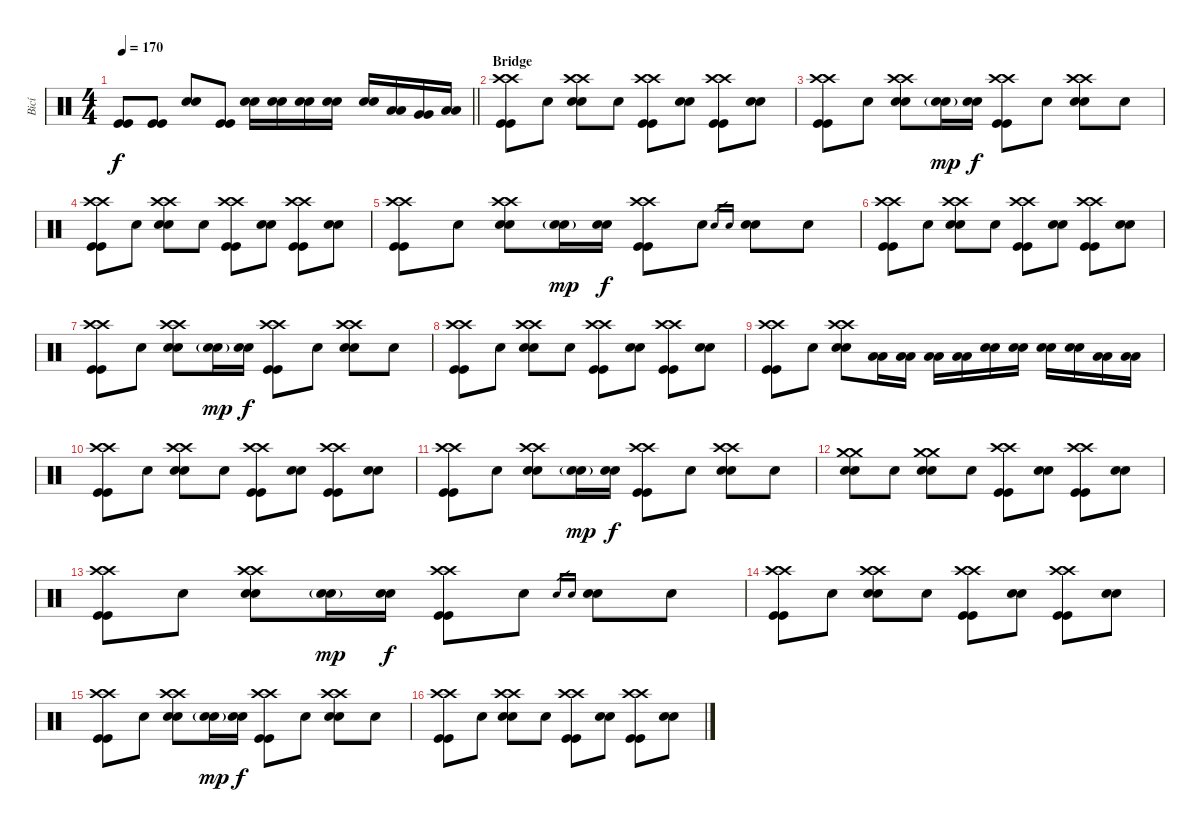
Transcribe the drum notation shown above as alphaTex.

\track ("Bicí" "Bicí") {instrument percussion}
\staff {score}
\articulation defaults
\ts (4 4)
\tempo 170
\clef neutral
\barLineRight lightlight
\ks c
("Kick (hit)" "Kick (hit)").8{dy f} ("Kick (hit)" "Kick (hit)").8 ("Electric Snare (hit)" "Electric Snare (hit)").8 ("Kick (hit)" "Kick (hit)").8 ("Electric Snare (hit)" "Electric Snare (hit)").16 ("Electric Snare (hit)" "Electric Snare (hit)").16 ("Electric Snare (hit)" "Electric Snare (hit)").16 ("Electric Snare (hit)" "Electric Snare (hit)").16 ("Electric Snare (hit)" "Electric Snare (hit)").16 ("Low Tom (hit)" "Low Tom (hit)").16 ("Very Low Tom (hit)" "Very Low Tom (hit)").16 ("Low Floor Tom (hit)" "Low Floor Tom (hit)").16 |
\section ("" "Bridge")
("Crash high (hit)" "Crash high (hit)" "Kick (hit)" "Kick (hit)").8 "Snare (hit)".8 ("Crash high (hit)" "Crash high (hit)" "Electric Snare (hit)" "Electric Snare (hit)").8 "Snare (hit)".8 ("Crash high (hit)" "Crash high (hit)" "Kick (hit)" "Kick (hit)").8 ("Electric Snare (hit)" "Electric Snare (hit)").8 ("Crash high (hit)" "Crash high (hit)" "Kick (hit)" "Kick (hit)").8 ("Electric Snare (hit)" "Electric Snare (hit)").8 |
("Crash high (hit)" "Crash high (hit)" "Kick (hit)" "Kick (hit)").8 "Snare (hit)".8 ("Crash high (hit)" "Crash high (hit)" "Electric Snare (hit)" "Electric Snare (hit)").8 ("Electric Snare (hit)"{g} "Electric Snare (hit)"{g}).16{dy mp} ("Electric Snare (hit)" "Electric Snare (hit)").16{dy f} ("Crash high (hit)" "Crash high (hit)" "Kick (hit)" "Kick (hit)").8 "Snare (hit)".8 ("Crash high (hit)" "Crash high (hit)" "Electric Snare (hit)" "Electric Snare (hit)").8 "Snare (hit)".8 |
("Crash high (hit)" "Crash high (hit)" "Kick (hit)" "Kick (hit)").8 "Snare (hit)".8 ("Crash high (hit)" "Crash high (hit)" "Electric Snare (hit)" "Electric Snare (hit)").8 "Snare (hit)".8 ("Crash high (hit)" "Crash high (hit)" "Kick (hit)" "Kick (hit)").8 ("Electric Snare (hit)" "Electric Snare (hit)").8 ("Crash high (hit)" "Crash high (hit)" "Kick (hit)" "Kick (hit)").8 ("Electric Snare (hit)" "Electric Snare (hit)").8 |
("Crash high (hit)" "Crash high (hit)" "Kick (hit)" "Kick (hit)").8 "Snare (hit)".8 ("Crash high (hit)" "Crash high (hit)" "Electric Snare (hit)" "Electric Snare (hit)").8 ("Electric Snare (hit)"{g} "Electric Snare (hit)"{g}).16{dy mp} ("Electric Snare (hit)" "Electric Snare (hit)").16{dy f} ("Crash high (hit)" "Crash high (hit)" "Kick (hit)" "Kick (hit)").8 "Snare (hit)".8 "Electric Snare (hit)".16{gr} "Electric Snare (hit)".16{gr} ("Electric Snare (hit)" "Electric Snare (hit)").8 "Snare (hit)".8 |
("Crash high (hit)" "Crash high (hit)" "Kick (hit)" "Kick (hit)").8 "Snare (hit)".8 ("Crash high (hit)" "Crash high (hit)" "Electric Snare (hit)" "Electric Snare (hit)").8 "Snare (hit)".8 ("Crash high (hit)" "Crash high (hit)" "Kick (hit)" "Kick (hit)").8 ("Electric Snare (hit)" "Electric Snare (hit)").8 ("Crash high (hit)" "Crash high (hit)" "Kick (hit)" "Kick (hit)").8 ("Electric Snare (hit)" "Electric Snare (hit)").8 |
("Crash high (hit)" "Crash high (hit)" "Kick (hit)" "Kick (hit)").8 "Snare (hit)".8 ("Crash high (hit)" "Crash high (hit)" "Electric Snare (hit)" "Electric Snare (hit)").8 ("Electric Snare (hit)"{g} "Electric Snare (hit)"{g}).16{dy mp} ("Electric Snare (hit)" "Electric Snare (hit)").16{dy f} ("Crash high (hit)" "Crash high (hit)" "Kick (hit)" "Kick (hit)").8 "Snare (hit)".8 ("Crash high (hit)" "Crash high (hit)" "Electric Snare (hit)" "Electric Snare (hit)").8 "Snare (hit)".8 |
("Crash high (hit)" "Crash high (hit)" "Kick (hit)" "Kick (hit)").8 "Snare (hit)".8 ("Crash high (hit)" "Crash high (hit)" "Electric Snare (hit)" "Electric Snare (hit)").8 "Snare (hit)".8 ("Crash high (hit)" "Crash high (hit)" "Kick (hit)" "Kick (hit)").8 ("Electric Snare (hit)" "Electric Snare (hit)").8 ("Crash high (hit)" "Crash high (hit)" "Kick (hit)" "Kick (hit)").8 ("Electric Snare (hit)" "Electric Snare (hit)").8 |
("Crash high (hit)" "Crash high (hit)" "Kick (hit)" "Kick (hit)").8 "Snare (hit)".8 ("Crash high (hit)" "Crash high (hit)" "Electric Snare (hit)" "Electric Snare (hit)").8 ("Low Tom (hit)" "Low Tom (hit)").16 ("Low Tom (hit)" "Low Tom (hit)").16 ("Low Tom (hit)" "Low Tom (hit)").16 ("Low Tom (hit)" "Low Tom (hit)").16 ("Electric Snare (hit)" "Electric Snare (hit)").16 ("Electric Snare (hit)" "Electric Snare (hit)").16 ("Electric Snare (hit)" "Electric Snare (hit)").16 ("Electric Snare (hit)" "Electric Snare (hit)").16 ("Low Tom (hit)" "Low Tom (hit)").16 ("Low Tom (hit)" "Low Tom (hit)").16 |
("Crash high (hit)" "Crash high (hit)" "Kick (hit)" "Kick (hit)").8 "Snare (hit)".8 ("Crash high (hit)" "Crash high (hit)" "Electric Snare (hit)" "Electric Snare (hit)").8 "Snare (hit)".8 ("Crash high (hit)" "Crash high (hit)" "Kick (hit)" "Kick (hit)").8 ("Electric Snare (hit)" "Electric Snare (hit)").8 ("Crash high (hit)" "Crash high (hit)" "Kick (hit)" "Kick (hit)").8 ("Electric Snare (hit)" "Electric Snare (hit)").8 |
("Crash high (hit)" "Crash high (hit)" "Kick (hit)" "Kick (hit)").8 "Snare (hit)".8 ("Crash high (hit)" "Crash high (hit)" "Electric Snare (hit)" "Electric Snare (hit)").8 ("Electric Snare (hit)"{g} "Electric Snare (hit)"{g}).16{dy mp} ("Electric Snare (hit)" "Electric Snare (hit)").16{dy f} ("Crash high (hit)" "Crash high (hit)" "Kick (hit)" "Kick (hit)").8 "Snare (hit)".8 ("Crash high (hit)" "Crash high (hit)" "Electric Snare (hit)" "Electric Snare (hit)").8 "Snare (hit)".8 |
("Crash medium (hit)" "Crash medium (hit)" "Electric Snare (hit)" "Electric Snare (hit)").8 "Snare (hit)".8 ("Crash medium (hit)" "Crash medium (hit)" "Electric Snare (hit)" "Electric Snare (hit)").8 "Snare (hit)".8 ("Crash high (hit)" "Crash high (hit)" "Kick (hit)" "Kick (hit)").8 ("Electric Snare (hit)" "Electric Snare (hit)").8 ("Crash high (hit)" "Crash high (hit)" "Kick (hit)" "Kick (hit)").8 ("Electric Snare (hit)" "Electric Snare (hit)").8 |
("Crash high (hit)" "Crash high (hit)" "Kick (hit)" "Kick (hit)").8 "Snare (hit)".8 ("Crash high (hit)" "Crash high (hit)" "Electric Snare (hit)" "Electric Snare (hit)").8 ("Electric Snare (hit)"{g} "Electric Snare (hit)"{g}).16{dy mp} ("Electric Snare (hit)" "Electric Snare (hit)").16{dy f} ("Crash high (hit)" "Crash high (hit)" "Kick (hit)" "Kick (hit)").8 "Snare (hit)".8 "Electric Snare (hit)".16{gr} "Electric Snare (hit)".16{gr} ("Electric Snare (hit)" "Electric Snare (hit)").8 "Snare (hit)".8 |
("Crash high (hit)" "Crash high (hit)" "Kick (hit)" "Kick (hit)").8 "Snare (hit)".8 ("Crash high (hit)" "Crash high (hit)" "Electric Snare (hit)" "Electric Snare (hit)").8 "Snare (hit)".8 ("Crash high (hit)" "Crash high (hit)" "Kick (hit)" "Kick (hit)").8 ("Electric Snare (hit)" "Electric Snare (hit)").8 ("Crash high (hit)" "Crash high (hit)" "Kick (hit)" "Kick (hit)").8 ("Electric Snare (hit)" "Electric Snare (hit)").8 |
("Crash high (hit)" "Crash high (hit)" "Kick (hit)" "Kick (hit)").8 "Snare (hit)".8 ("Crash high (hit)" "Crash high (hit)" "Electric Snare (hit)" "Electric Snare (hit)").8 ("Electric Snare (hit)"{g} "Electric Snare (hit)"{g}).16{dy mp} ("Electric Snare (hit)" "Electric Snare (hit)").16{dy f} ("Crash high (hit)" "Crash high (hit)" "Kick (hit)" "Kick (hit)").8 "Snare (hit)".8 ("Crash high (hit)" "Crash high (hit)" "Electric Snare (hit)" "Electric Snare (hit)").8 "Snare (hit)".8 |
("Crash high (hit)" "Crash high (hit)" "Kick (hit)" "Kick (hit)").8 "Snare (hit)".8 ("Crash high (hit)" "Crash high (hit)" "Electric Snare (hit)" "Electric Snare (hit)").8 "Snare (hit)".8 ("Crash high (hit)" "Crash high (hit)" "Kick (hit)" "Kick (hit)").8 ("Electric Snare (hit)" "Electric Snare (hit)").8 ("Crash high (hit)" "Crash high (hit)" "Kick (hit)" "Kick (hit)").8 ("Electric Snare (hit)" "Electric Snare (hit)").8
